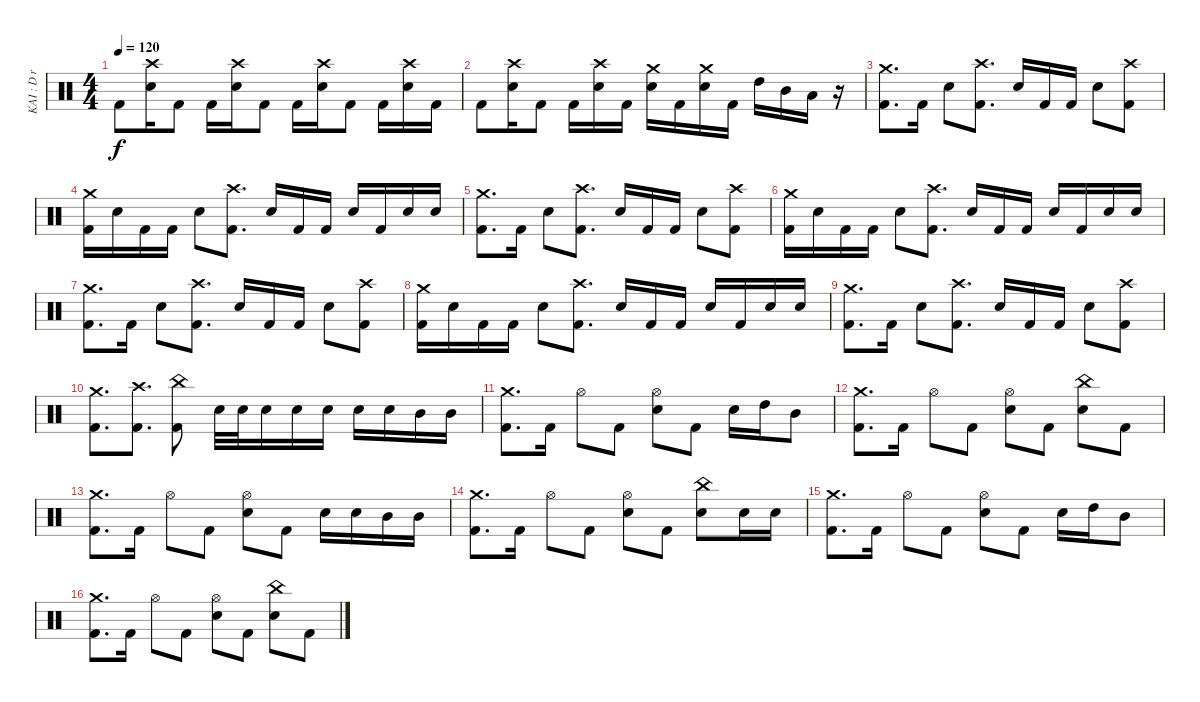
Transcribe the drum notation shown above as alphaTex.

\track ("KAI : D r u m S" "KAI : D r ") {instrument percussion}
\staff {score}
\articulation defaults
\ts (4 4)
\tempo 120
\clef neutral
\ks c "Kick (hit) 2".8{dy f}
("Crash high (hit)" "Electric Snare (hit)").16 "Kick (hit) 2".8 "Kick (hit) 2".16 ("Crash high (hit)" "Electric Snare (hit)").16 "Kick (hit) 2".8 "Kick (hit) 2".16 ("Crash high (hit)" "Electric Snare (hit)").16 "Kick (hit) 2".8 "Kick (hit) 2".16 ("Crash high (hit)" "Electric Snare (hit)").16 "Kick (hit) 2".16 |
"Kick (hit) 2".8 ("Crash high (hit)" "Electric Snare (hit)").16 "Kick (hit) 2".8 "Kick (hit) 2".16 ("Crash high (hit)" "Electric Snare (hit)").16 "Kick (hit) 2".16 ("Crash medium (hit)" "Electric Snare (hit)").16 "Kick (hit) 2".16 ("Crash medium (hit)" "Electric Snare (hit)").16 "Kick (hit) 2".16 "High Tom (hit)".16 "Mid Tom (hit)".16 "Low Tom (hit)".16 r.16 |
("Crash medium (hit)" "Kick (hit) 2").8{d} "Kick (hit) 2".16 "Electric Snare (hit)".8 ("Crash high (hit)" "Kick (hit) 2").8{d} "Electric Snare (hit)".16 "Kick (hit) 2".16 "Kick (hit) 2".16 "Electric Snare (hit)".8 ("Crash high (hit)" "Kick (hit) 2").8 |
("Crash medium (hit)" "Kick (hit) 2").16 "Electric Snare (hit)".16 "Kick (hit) 2".16 "Kick (hit) 2".16 "Electric Snare (hit)".8 ("Crash high (hit)" "Kick (hit) 2").8{d} "Electric Snare (hit)".16 "Kick (hit) 2".16 "Kick (hit) 2".16 "Electric Snare (hit)".16 "Kick (hit) 2".16 "Electric Snare (hit)".16 "Electric Snare (hit)".16 |
("Crash medium (hit)" "Kick (hit) 2").8{d} "Kick (hit) 2".16 "Electric Snare (hit)".8 ("Crash high (hit)" "Kick (hit) 2").8{d} "Electric Snare (hit)".16 "Kick (hit) 2".16 "Kick (hit) 2".16 "Electric Snare (hit)".8 ("Crash high (hit)" "Kick (hit) 2").8 |
("Crash medium (hit)" "Kick (hit) 2").16 "Electric Snare (hit)".16 "Kick (hit) 2".16 "Kick (hit) 2".16 "Electric Snare (hit)".8 ("Crash high (hit)" "Kick (hit) 2").8{d} "Electric Snare (hit)".16 "Kick (hit) 2".16 "Kick (hit) 2".16 "Electric Snare (hit)".16 "Kick (hit) 2".16 "Electric Snare (hit)".16 "Electric Snare (hit)".16 |
("Crash medium (hit)" "Kick (hit) 2").8{d} "Kick (hit) 2".16 "Electric Snare (hit)".8 ("Crash high (hit)" "Kick (hit) 2").8{d} "Electric Snare (hit)".16 "Kick (hit) 2".16 "Kick (hit) 2".16 "Electric Snare (hit)".8 ("Crash high (hit)" "Kick (hit) 2").8 |
("Crash medium (hit)" "Kick (hit) 2").16 "Electric Snare (hit)".16 "Kick (hit) 2".16 "Kick (hit) 2".16 "Electric Snare (hit)".8 ("Crash high (hit)" "Kick (hit) 2").8{d} "Electric Snare (hit)".16 "Kick (hit) 2".16 "Kick (hit) 2".16 "Electric Snare (hit)".16 "Kick (hit) 2".16 "Electric Snare (hit)".16 "Electric Snare (hit)".16 |
("Crash medium (hit)" "Kick (hit) 2").8{d} "Kick (hit) 2".16 "Electric Snare (hit)".8 ("Crash high (hit)" "Kick (hit) 2").8{d} "Electric Snare (hit)".16 "Kick (hit) 2".16 "Kick (hit) 2".16 "Electric Snare (hit)".8 ("Crash high (hit)" "Kick (hit) 2").8 |
("Crash medium (hit)" "Kick (hit) 2").8{d} ("Crash high (hit)" "Kick (hit) 2").8{d} ("China (hit)" "Kick (hit) 2").8 "Electric Snare (hit)".32 "Electric Snare (hit)".32 "Electric Snare (hit)".16 "Electric Snare (hit)".16 "Electric Snare (hit)".16 "Electric Snare (hit)".16 "Electric Snare (hit)".16 "Mid Tom (hit)".16 "Mid Tom (hit)".16 |
("Crash medium (hit)" "Kick (hit) 2").8{d} "Kick (hit) 2".16 "Hi-Hat (open)".8 "Kick (hit) 2".8 ("Hi-Hat (open)" "Electric Snare (hit)").8 "Kick (hit) 2".8 "Electric Snare (hit)".16 "High Tom (hit)".16 "Mid Tom (hit)".8 |
("Crash medium (hit)" "Kick (hit) 2").8{d} "Kick (hit) 2".16 "Hi-Hat (open)".8 "Kick (hit) 2".8 ("Hi-Hat (open)" "Electric Snare (hit)").8 "Kick (hit) 2".8 ("China (hit)" "Electric Snare (hit)").8 "Kick (hit) 2".8 |
("Crash medium (hit)" "Kick (hit) 2").8{d} "Kick (hit) 2".16 "Hi-Hat (open)".8 "Kick (hit) 2".8 ("Hi-Hat (open)" "Electric Snare (hit)").8 "Kick (hit) 2".8 "Electric Snare (hit)".16 "Electric Snare (hit)".16 "Mid Tom (hit)".16 "Mid Tom (hit)".16 |
("Crash medium (hit)" "Kick (hit) 2").8{d} "Kick (hit) 2".16 "Hi-Hat (open)".8 "Kick (hit) 2".8 ("Hi-Hat (open)" "Electric Snare (hit)").8 "Kick (hit) 2".8 ("China (hit)" "Electric Snare (hit)").8 "Electric Snare (hit)".16 "Electric Snare (hit)".16 |
("Crash medium (hit)" "Kick (hit) 2").8{d} "Kick (hit) 2".16 "Hi-Hat (open)".8 "Kick (hit) 2".8 ("Hi-Hat (open)" "Electric Snare (hit)").8 "Kick (hit) 2".8 "Electric Snare (hit)".16 "High Tom (hit)".16 "Mid Tom (hit)".8 |
("Crash medium (hit)" "Kick (hit) 2").8{d} "Kick (hit) 2".16 "Hi-Hat (open)".8 "Kick (hit) 2".8 ("Hi-Hat (open)" "Electric Snare (hit)").8 "Kick (hit) 2".8 ("China (hit)" "Electric Snare (hit)").8 "Kick (hit) 2".8
